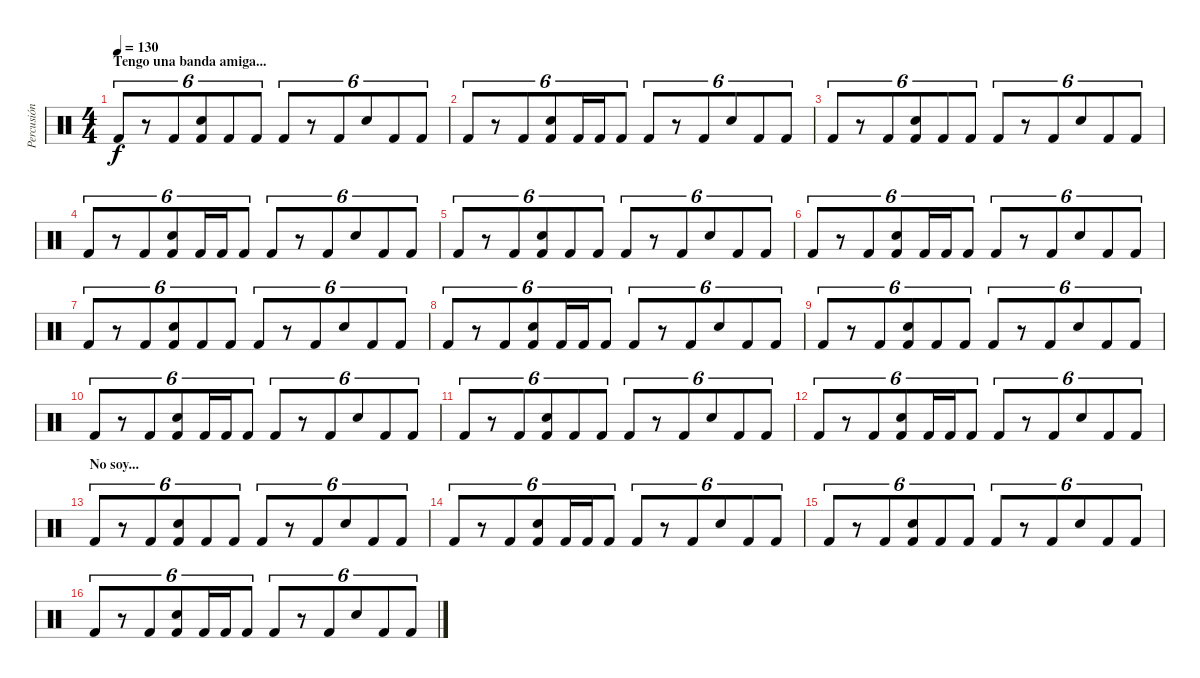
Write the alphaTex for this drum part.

\track ("Percusión" "Percusión") {instrument percussion}
\staff {score}
\articulation defaults
\ts (4 4)
\section ("" "Tengo una banda amiga...")
\tempo 130
\clef neutral
\ks c "Kick (hit) 2".8{tu (6 4) dy f}
r.8{tu (6 4)} "Kick (hit) 2".8{tu (6 4)} ("Electric Snare (hit)" "Kick (hit) 2").8{tu (6 4)} "Kick (hit) 2".8{tu (6 4)} "Kick (hit) 2".8{tu (6 4)} "Kick (hit) 2".8{tu (6 4)} r.8{tu (6 4)} "Kick (hit) 2".8{tu (6 4)} "Electric Snare (hit)".8{tu (6 4)} "Kick (hit) 2".8{tu (6 4)} "Kick (hit) 2".8{tu (6 4)} |
"Kick (hit) 2".8{tu (6 4)} r.8{tu (6 4)} "Kick (hit) 2".8{tu (6 4)} ("Electric Snare (hit)" "Kick (hit) 2").8{tu (6 4)} "Kick (hit) 2".16{tu (6 4)} "Kick (hit) 2".16{tu (6 4)} "Kick (hit) 2".8{tu (6 4)} "Kick (hit) 2".8{tu (6 4)} r.8{tu (6 4)} "Kick (hit) 2".8{tu (6 4)} "Electric Snare (hit)".8{tu (6 4)} "Kick (hit) 2".8{tu (6 4)} "Kick (hit) 2".8{tu (6 4)} |
"Kick (hit) 2".8{tu (6 4)} r.8{tu (6 4)} "Kick (hit) 2".8{tu (6 4)} ("Electric Snare (hit)" "Kick (hit) 2").8{tu (6 4)} "Kick (hit) 2".8{tu (6 4)} "Kick (hit) 2".8{tu (6 4)} "Kick (hit) 2".8{tu (6 4)} r.8{tu (6 4)} "Kick (hit) 2".8{tu (6 4)} "Electric Snare (hit)".8{tu (6 4)} "Kick (hit) 2".8{tu (6 4)} "Kick (hit) 2".8{tu (6 4)} |
"Kick (hit) 2".8{tu (6 4)} r.8{tu (6 4)} "Kick (hit) 2".8{tu (6 4)} ("Electric Snare (hit)" "Kick (hit) 2").8{tu (6 4)} "Kick (hit) 2".16{tu (6 4)} "Kick (hit) 2".16{tu (6 4)} "Kick (hit) 2".8{tu (6 4)} "Kick (hit) 2".8{tu (6 4)} r.8{tu (6 4)} "Kick (hit) 2".8{tu (6 4)} "Electric Snare (hit)".8{tu (6 4)} "Kick (hit) 2".8{tu (6 4)} "Kick (hit) 2".8{tu (6 4)} |
"Kick (hit) 2".8{tu (6 4)} r.8{tu (6 4)} "Kick (hit) 2".8{tu (6 4)} ("Electric Snare (hit)" "Kick (hit) 2").8{tu (6 4)} "Kick (hit) 2".8{tu (6 4)} "Kick (hit) 2".8{tu (6 4)} "Kick (hit) 2".8{tu (6 4)} r.8{tu (6 4)} "Kick (hit) 2".8{tu (6 4)} "Electric Snare (hit)".8{tu (6 4)} "Kick (hit) 2".8{tu (6 4)} "Kick (hit) 2".8{tu (6 4)} |
"Kick (hit) 2".8{tu (6 4)} r.8{tu (6 4)} "Kick (hit) 2".8{tu (6 4)} ("Electric Snare (hit)" "Kick (hit) 2").8{tu (6 4)} "Kick (hit) 2".16{tu (6 4)} "Kick (hit) 2".16{tu (6 4)} "Kick (hit) 2".8{tu (6 4)} "Kick (hit) 2".8{tu (6 4)} r.8{tu (6 4)} "Kick (hit) 2".8{tu (6 4)} "Electric Snare (hit)".8{tu (6 4)} "Kick (hit) 2".8{tu (6 4)} "Kick (hit) 2".8{tu (6 4)} |
"Kick (hit) 2".8{tu (6 4)} r.8{tu (6 4)} "Kick (hit) 2".8{tu (6 4)} ("Electric Snare (hit)" "Kick (hit) 2").8{tu (6 4)} "Kick (hit) 2".8{tu (6 4)} "Kick (hit) 2".8{tu (6 4)} "Kick (hit) 2".8{tu (6 4)} r.8{tu (6 4)} "Kick (hit) 2".8{tu (6 4)} "Electric Snare (hit)".8{tu (6 4)} "Kick (hit) 2".8{tu (6 4)} "Kick (hit) 2".8{tu (6 4)} |
"Kick (hit) 2".8{tu (6 4)} r.8{tu (6 4)} "Kick (hit) 2".8{tu (6 4)} ("Electric Snare (hit)" "Kick (hit) 2").8{tu (6 4)} "Kick (hit) 2".16{tu (6 4)} "Kick (hit) 2".16{tu (6 4)} "Kick (hit) 2".8{tu (6 4)} "Kick (hit) 2".8{tu (6 4)} r.8{tu (6 4)} "Kick (hit) 2".8{tu (6 4)} "Electric Snare (hit)".8{tu (6 4)} "Kick (hit) 2".8{tu (6 4)} "Kick (hit) 2".8{tu (6 4)} |
"Kick (hit) 2".8{tu (6 4)} r.8{tu (6 4)} "Kick (hit) 2".8{tu (6 4)} ("Electric Snare (hit)" "Kick (hit) 2").8{tu (6 4)} "Kick (hit) 2".8{tu (6 4)} "Kick (hit) 2".8{tu (6 4)} "Kick (hit) 2".8{tu (6 4)} r.8{tu (6 4)} "Kick (hit) 2".8{tu (6 4)} "Electric Snare (hit)".8{tu (6 4)} "Kick (hit) 2".8{tu (6 4)} "Kick (hit) 2".8{tu (6 4)} |
"Kick (hit) 2".8{tu (6 4)} r.8{tu (6 4)} "Kick (hit) 2".8{tu (6 4)} ("Electric Snare (hit)" "Kick (hit) 2").8{tu (6 4)} "Kick (hit) 2".16{tu (6 4)} "Kick (hit) 2".16{tu (6 4)} "Kick (hit) 2".8{tu (6 4)} "Kick (hit) 2".8{tu (6 4)} r.8{tu (6 4)} "Kick (hit) 2".8{tu (6 4)} "Electric Snare (hit)".8{tu (6 4)} "Kick (hit) 2".8{tu (6 4)} "Kick (hit) 2".8{tu (6 4)} |
"Kick (hit) 2".8{tu (6 4)} r.8{tu (6 4)} "Kick (hit) 2".8{tu (6 4)} ("Electric Snare (hit)" "Kick (hit) 2").8{tu (6 4)} "Kick (hit) 2".8{tu (6 4)} "Kick (hit) 2".8{tu (6 4)} "Kick (hit) 2".8{tu (6 4)} r.8{tu (6 4)} "Kick (hit) 2".8{tu (6 4)} "Electric Snare (hit)".8{tu (6 4)} "Kick (hit) 2".8{tu (6 4)} "Kick (hit) 2".8{tu (6 4)} |
"Kick (hit) 2".8{tu (6 4)} r.8{tu (6 4)} "Kick (hit) 2".8{tu (6 4)} ("Electric Snare (hit)" "Kick (hit) 2").8{tu (6 4)} "Kick (hit) 2".16{tu (6 4)} "Kick (hit) 2".16{tu (6 4)} "Kick (hit) 2".8{tu (6 4)} "Kick (hit) 2".8{tu (6 4)} r.8{tu (6 4)} "Kick (hit) 2".8{tu (6 4)} "Electric Snare (hit)".8{tu (6 4)} "Kick (hit) 2".8{tu (6 4)} "Kick (hit) 2".8{tu (6 4)} |
\section ("" "No soy...")
"Kick (hit) 2".8{tu (6 4)} r.8{tu (6 4)} "Kick (hit) 2".8{tu (6 4)} ("Electric Snare (hit)" "Kick (hit) 2").8{tu (6 4)} "Kick (hit) 2".8{tu (6 4)} "Kick (hit) 2".8{tu (6 4)} "Kick (hit) 2".8{tu (6 4)} r.8{tu (6 4)} "Kick (hit) 2".8{tu (6 4)} "Electric Snare (hit)".8{tu (6 4)} "Kick (hit) 2".8{tu (6 4)} "Kick (hit) 2".8{tu (6 4)} |
"Kick (hit) 2".8{tu (6 4)} r.8{tu (6 4)} "Kick (hit) 2".8{tu (6 4)} ("Electric Snare (hit)" "Kick (hit) 2").8{tu (6 4)} "Kick (hit) 2".16{tu (6 4)} "Kick (hit) 2".16{tu (6 4)} "Kick (hit) 2".8{tu (6 4)} "Kick (hit) 2".8{tu (6 4)} r.8{tu (6 4)} "Kick (hit) 2".8{tu (6 4)} "Electric Snare (hit)".8{tu (6 4)} "Kick (hit) 2".8{tu (6 4)} "Kick (hit) 2".8{tu (6 4)} |
"Kick (hit) 2".8{tu (6 4)} r.8{tu (6 4)} "Kick (hit) 2".8{tu (6 4)} ("Electric Snare (hit)" "Kick (hit) 2").8{tu (6 4)} "Kick (hit) 2".8{tu (6 4)} "Kick (hit) 2".8{tu (6 4)} "Kick (hit) 2".8{tu (6 4)} r.8{tu (6 4)} "Kick (hit) 2".8{tu (6 4)} "Electric Snare (hit)".8{tu (6 4)} "Kick (hit) 2".8{tu (6 4)} "Kick (hit) 2".8{tu (6 4)} |
"Kick (hit) 2".8{tu (6 4)} r.8{tu (6 4)} "Kick (hit) 2".8{tu (6 4)} ("Electric Snare (hit)" "Kick (hit) 2").8{tu (6 4)} "Kick (hit) 2".16{tu (6 4)} "Kick (hit) 2".16{tu (6 4)} "Kick (hit) 2".8{tu (6 4)} "Kick (hit) 2".8{tu (6 4)} r.8{tu (6 4)} "Kick (hit) 2".8{tu (6 4)} "Electric Snare (hit)".8{tu (6 4)} "Kick (hit) 2".8{tu (6 4)} "Kick (hit) 2".8{tu (6 4)}
